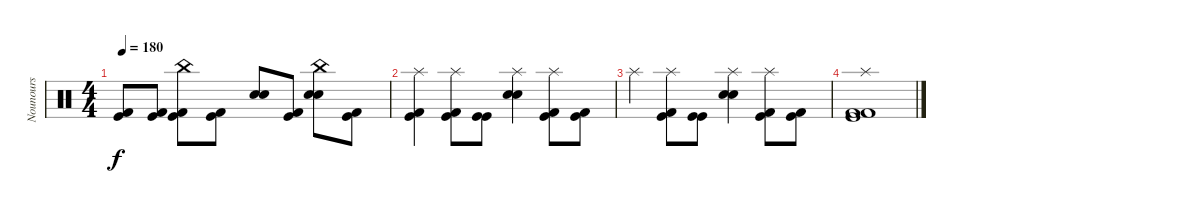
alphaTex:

\track ("Nounours" "Nounours") {instrument percussion}
\staff {score}
\articulation defaults
\ts (4 4)
\tempo 180
\clef neutral
\ks c
("Kick (hit)" "Kick (hit) 2").8{dy f} ("Kick (hit)" "Kick (hit) 2").8 ("China (hit)" "Kick (hit) 2" "Kick (hit)").8 ("Kick (hit)" "Kick (hit) 2").8 ("Snare (hit) 2" "Electric Snare (hit)").8 ("Kick (hit) 2" "Kick (hit)").8 ("China (hit)" "Electric Snare (hit)" "Snare (hit) 2").8 ("Kick (hit) 2" "Kick (hit)").8 |
("Splash (hit)" "Kick (hit) 2" "Kick (hit)").4 ("Splash (hit)" "Kick (hit)" "Kick (hit) 2").8 ("Kick (hit)" "Kick (hit)").8 ("Splash (hit)" "Snare (hit) 2" "Electric Snare (hit)").4 ("Splash (hit)" "Kick (hit) 2" "Kick (hit)").8 ("Kick (hit) 2" "Kick (hit)").8 |
"Splash (hit)".4 ("Splash (hit)" "Kick (hit)" "Kick (hit) 2").8 ("Kick (hit)" "Kick (hit)").8 ("Splash (hit)" "Snare (hit) 2" "Electric Snare (hit)").4 ("Splash (hit)" "Kick (hit) 2" "Kick (hit)").8 ("Kick (hit) 2" "Kick (hit)").8 |
("Splash (hit)" "Kick (hit)" "Kick (hit) 2" "Kick (hit) 2").1
